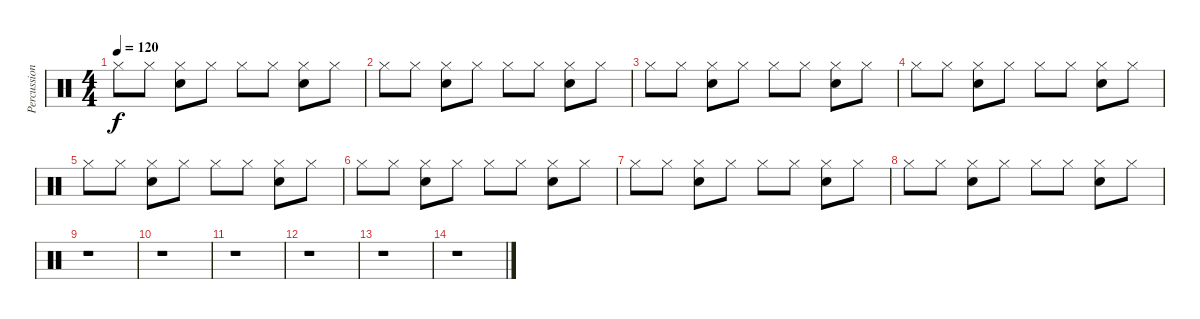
\track ("Percussion      " "Percussion") {instrument percussion}
\staff {score}
\articulation defaults
\ts (4 4)
\tempo 120
\clef neutral
\ks c "Hi-Hat (closed)".8{dy f} "Hi-Hat (closed)".8
("Hi-Hat (closed)" "Snare (hit) 2").8 "Hi-Hat (closed)".8 "Hi-Hat (closed)".8 "Hi-Hat (closed)".8 ("Hi-Hat (closed)" "Snare (hit) 2").8 "Hi-Hat (closed)".8 |
"Hi-Hat (closed)".8 "Hi-Hat (closed)".8 ("Hi-Hat (closed)" "Snare (hit) 2").8 "Hi-Hat (closed)".8 "Hi-Hat (closed)".8 "Hi-Hat (closed)".8 ("Hi-Hat (closed)" "Snare (hit) 2").8 "Hi-Hat (closed)".8 |
"Hi-Hat (closed)".8 "Hi-Hat (closed)".8 ("Hi-Hat (closed)" "Snare (hit) 2").8 "Hi-Hat (closed)".8 "Hi-Hat (closed)".8 "Hi-Hat (closed)".8 ("Hi-Hat (closed)" "Snare (hit) 2").8 "Hi-Hat (closed)".8 |
"Hi-Hat (closed)".8 "Hi-Hat (closed)".8 ("Hi-Hat (closed)" "Snare (hit) 2").8 "Hi-Hat (closed)".8 "Hi-Hat (closed)".8 "Hi-Hat (closed)".8 ("Hi-Hat (closed)" "Snare (hit) 2").8 "Hi-Hat (closed)".8 |
"Hi-Hat (closed)".8 "Hi-Hat (closed)".8 ("Hi-Hat (closed)" "Snare (hit) 2").8 "Hi-Hat (closed)".8 "Hi-Hat (closed)".8 "Hi-Hat (closed)".8 ("Hi-Hat (closed)" "Snare (hit) 2").8 "Hi-Hat (closed)".8 |
"Hi-Hat (closed)".8 "Hi-Hat (closed)".8 ("Hi-Hat (closed)" "Snare (hit) 2").8 "Hi-Hat (closed)".8 "Hi-Hat (closed)".8 "Hi-Hat (closed)".8 ("Hi-Hat (closed)" "Snare (hit) 2").8 "Hi-Hat (closed)".8 |
"Hi-Hat (closed)".8 "Hi-Hat (closed)".8 ("Hi-Hat (closed)" "Snare (hit) 2").8 "Hi-Hat (closed)".8 "Hi-Hat (closed)".8 "Hi-Hat (closed)".8 ("Hi-Hat (closed)" "Snare (hit) 2").8 "Hi-Hat (closed)".8 |
"Hi-Hat (closed)".8 "Hi-Hat (closed)".8 ("Hi-Hat (closed)" "Snare (hit) 2").8 "Hi-Hat (closed)".8 "Hi-Hat (closed)".8 "Hi-Hat (closed)".8 ("Hi-Hat (closed)" "Snare (hit) 2").8 "Hi-Hat (closed)".8 |
r.1 |
r.1 |
r.1 |
r.1 |
r.1 |
r.1
